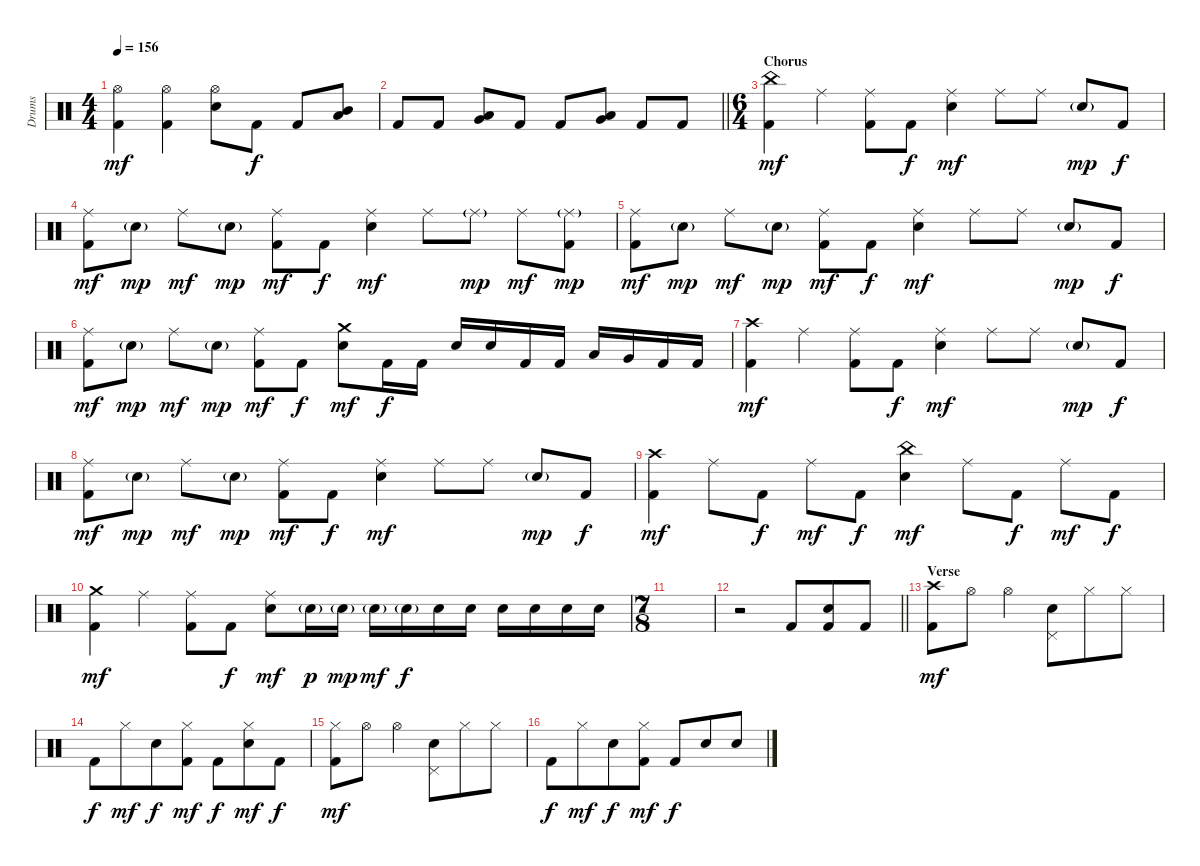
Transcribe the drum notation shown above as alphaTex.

\track ("Drums" "Drums") {instrument percussion}
\staff {score}
\articulation defaults
\ts (4 4)
\tempo 156
\clef neutral
\ks c
("Hi-Hat (open)" "Kick (hit) 2").4{dy mf} ("Hi-Hat (open)" "Kick (hit) 2").4 ("Hi-Hat (open)" "Electric Snare (hit)").8 "Kick (hit) 2".8{dy f} "Kick (hit) 2".8 ("Mid Tom (hit)" "Low Tom (hit)").8 |
\barLineRight lightlight "Kick (hit) 2".8 "Kick (hit) 2".8
("Low Tom (hit)" "Very Low Tom (hit)").8 "Kick (hit) 2".8 "Kick (hit) 2".8 ("Very Low Tom (hit)" "Low Floor Tom (hit)").8 "Kick (hit) 2".8 "Kick (hit) 2".8 |
\ts (6 4)
\section ("" "Chorus")
("China (hit)" "Kick (hit) 2").4{dy mf} "Ride (middle)".4 ("Ride (middle)" "Kick (hit) 2").8 "Kick (hit) 2".8{dy f} ("Ride (middle)" "Electric Snare (hit)").4{dy mf} "Ride (middle)".8 "Ride (middle)".8 "Electric Snare (hit)"{g}.8{dy mp} "Kick (hit) 2".8{dy f} |
("Ride (middle)" "Kick (hit) 2").8{dy mf} "Electric Snare (hit)"{g}.8{dy mp} "Ride (middle)".8{dy mf} "Electric Snare (hit)"{g}.8{dy mp} ("Ride (middle)" "Kick (hit) 2").8{dy mf} "Kick (hit) 2".8{dy f} ("Ride (middle)" "Electric Snare (hit)").4{dy mf} "Ride (middle)".8 "Ride (middle)"{g}.8{dy mp} "Ride (middle)".8{dy mf} ("Ride (middle)"{g} "Kick (hit) 2").8{dy mp} |
("Ride (middle)" "Kick (hit) 2").8{dy mf} "Electric Snare (hit)"{g}.8{dy mp} "Ride (middle)".8{dy mf} "Electric Snare (hit)"{g}.8{dy mp} ("Ride (middle)" "Kick (hit) 2").8{dy mf} "Kick (hit) 2".8{dy f} ("Ride (middle)" "Electric Snare (hit)").4{dy mf} "Ride (middle)".8 "Ride (middle)".8 "Electric Snare (hit)"{g}.8{dy mp} "Kick (hit) 2".8{dy f} |
("Ride (middle)" "Kick (hit) 2").8{dy mf} "Electric Snare (hit)"{g}.8{dy mp} "Ride (middle)".8{dy mf} "Electric Snare (hit)"{g}.8{dy mp} ("Ride (middle)" "Kick (hit) 2").8{dy mf} "Kick (hit) 2".8{dy f} ("Crash medium (hit)" "Electric Snare (hit)").8{dy mf} "Kick (hit) 2".16{dy f} "Kick (hit) 2".16 "Electric Snare (hit)".16 "Electric Snare (hit)".16 "Kick (hit) 2".16 "Kick (hit) 2".16 "Low Tom (hit)".16 "Very Low Tom (hit)".16 "Kick (hit) 2".16 "Kick (hit) 2".16 |
("Crash high (hit)" "Kick (hit) 2").4{dy mf} "Ride (middle)".4 ("Ride (middle)" "Kick (hit) 2").8 "Kick (hit) 2".8{dy f} ("Ride (middle)" "Electric Snare (hit)").4{dy mf} "Ride (middle)".8 "Ride (middle)".8 "Electric Snare (hit)"{g}.8{dy mp} "Kick (hit) 2".8{dy f} |
("Ride (middle)" "Kick (hit) 2").8{dy mf} "Electric Snare (hit)"{g}.8{dy mp} "Ride (middle)".8{dy mf} "Electric Snare (hit)"{g}.8{dy mp} ("Ride (middle)" "Kick (hit) 2").8{dy mf} "Kick (hit) 2".8{dy f} ("Ride (middle)" "Electric Snare (hit)").4{dy mf} "Ride (middle)".8 "Ride (middle)".8 "Electric Snare (hit)"{g}.8{dy mp} "Kick (hit) 2".8{dy f} |
("Crash high (hit)" "Kick (hit) 2").4{dy mf} "Ride (middle)".8 "Kick (hit) 2".8{dy f} "Ride (middle)".8{dy mf} "Kick (hit) 2".8{dy f} ("China (hit)" "Electric Snare (hit)").4{dy mf} "Ride (middle)".8 "Kick (hit) 2".8{dy f} "Ride (middle)".8{dy mf} "Kick (hit) 2".8{dy f} |
("Crash medium (hit)" "Kick (hit) 2").4{dy mf} "Ride (middle)".4 ("Ride (middle)" "Kick (hit) 2").8 "Kick (hit) 2".8{dy f} ("Ride (middle)" "Electric Snare (hit)").8{dy mf} "Electric Snare (hit)"{g}.16{dy p} "Electric Snare (hit)"{g}.16{dy mp} "Electric Snare (hit)"{g}.16{dy mf} "Electric Snare (hit)"{g}.16{dy f} "Electric Snare (hit)".16 "Electric Snare (hit)".16 "Electric Snare (hit)".16 "Electric Snare (hit)".16 "Electric Snare (hit)".16 "Electric Snare (hit)".16 |
\ts (7 8)
|
\barLineRight lightlight
r.2 "Kick (hit) 2".8 ("Electric Snare (hit)" "Kick (hit) 2").8 "Kick (hit) 2".8 |
\section ("" "Verse")
("Crash high (hit)" "Kick (hit) 2").8{dy mf} "Hi-Hat (open)".8 "Hi-Hat (open)".4 ("Pedal Hi-Hat (hit)" "Electric Snare (hit)").8 "Hi-Hat (closed)".8 "Hi-Hat (closed)".8 |
"Kick (hit) 2".8{dy f} "Hi-Hat (closed)".8{dy mf} "Electric Snare (hit)".8{dy f} ("Hi-Hat (closed)" "Kick (hit) 2").8{dy mf} "Kick (hit) 2".8{dy f} ("Hi-Hat (closed)" "Electric Snare (hit)").8{dy mf} "Kick (hit) 2".8{dy f} |
("Hi-Hat (closed)" "Kick (hit) 2").8{dy mf} "Hi-Hat (open)".8 "Hi-Hat (open)".4 ("Pedal Hi-Hat (hit)" "Electric Snare (hit)").8 "Hi-Hat (closed)".8 "Hi-Hat (closed)".8 |
"Kick (hit) 2".8{dy f} "Hi-Hat (closed)".8{dy mf} "Electric Snare (hit)".8{dy f} ("Hi-Hat (closed)" "Kick (hit) 2").8{dy mf} "Kick (hit) 2".8{dy f} "Electric Snare (hit)".8 "Electric Snare (hit)".8
